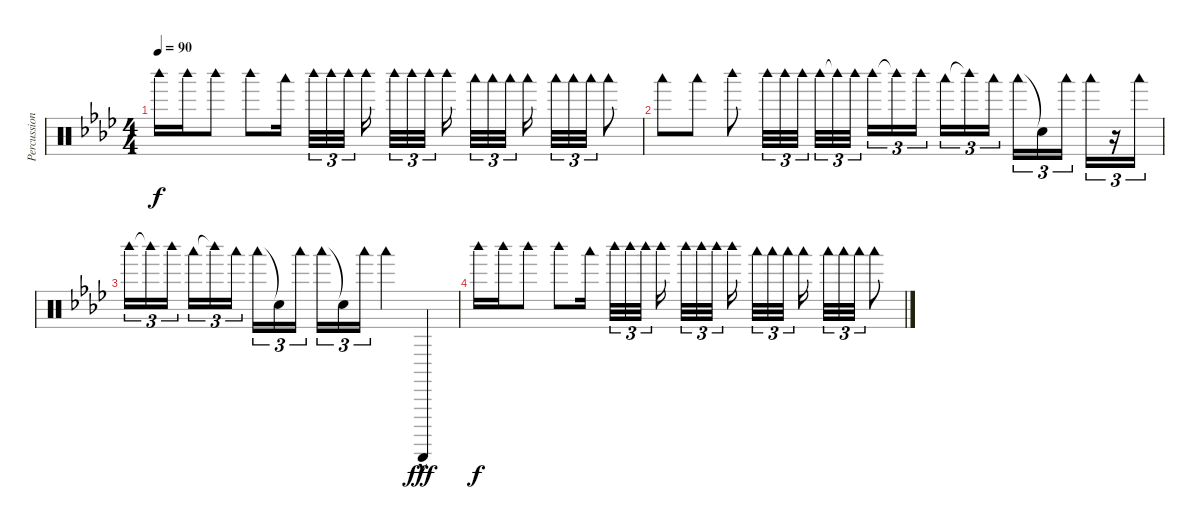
\track ("Percussion" "Percussion") {instrument percussion}
\staff {score}
\articulation defaults
\ts (4 4)
\tempo 90
\clef neutral
\ks ab "Woodblock high (hit)".16{dy f} "Woodblock high (hit)".16 "Woodblock high (hit)".8 "Woodblock high (hit)".8 "Woodblock low (hit)".16{beam splitsecondary} "Woodblock high (hit)".32{tu (3 2)} "Woodblock high (hit)".32{tu (3 2)} "Woodblock high (hit)".32{tu (3 2)} "Woodblock high (hit)".16{beam splitsecondary} "Woodblock high (hit)".32{tu (3 2)} "Woodblock high (hit)".32{tu (3 2)} "Woodblock high (hit)".32{tu (3 2) beam splitsecondary} "Woodblock high (hit)".16{beam splitsecondary} "Woodblock low (hit)".32{tu (3 2)} "Woodblock low (hit)".32{tu (3 2)} "Woodblock low (hit)".32{tu (3 2)} "Woodblock low (hit)".16{beam splitsecondary} "Woodblock low (hit)".32{tu (3 2)} "Woodblock low (hit)".32{tu (3 2)} "Woodblock low (hit)".32{tu (3 2)} "Woodblock low (hit)".8
|
"Woodblock low (hit)".8 "Woodblock low (hit)".8 "Woodblock high (hit)".8 "Woodblock high (hit)".32{tu (3 2)} "Woodblock high (hit)".32{tu (3 2)} "Woodblock high (hit)".32{tu (3 2) beam splitsecondary} "Woodblock high (hit)".32{tu (3 2)} "Woodblock high (hit)"{t}.32{tu (3 2)} "Woodblock high (hit)".32{tu (3 2)} "Woodblock high (hit)".16{tu (3 2)} "Woodblock high (hit)"{t}.16{tu (3 2)} "Woodblock high (hit)".16{tu (3 2) beam splitsecondary} "Woodblock low (hit)".16{tu (3 2)} "Woodblock high (hit)"{t}.16{tu (3 2)} "Woodblock low (hit)".16{tu (3 2)} "Woodblock low (hit)".16{tu (3 2)} "Snare (hit)"{t}.16{tu (3 2)} "Woodblock low (hit)".16{tu (3 2) beam splitsecondary} "Woodblock low (hit)".16{tu (3 2)} r.16{tu (3 2)} "Woodblock low (hit)".16{tu (3 2)} |
"Woodblock high (hit)".16{tu (3 2)} "Woodblock high (hit)"{t}.16{tu (3 2)} "Woodblock high (hit)".16{tu (3 2) beam splitsecondary} "Woodblock low (hit)".16{tu (3 2)} "Woodblock high (hit)"{t}.16{tu (3 2)} "Woodblock low (hit)".16{tu (3 2)} "Woodblock low (hit)".16{tu (3 2)} "Snare (hit)"{t}.16{tu (3 2)} "Woodblock low (hit)".16{tu (3 2) beam splitsecondary} "Woodblock low (hit)".16{tu (3 2)} "Snare (hit)"{t}.16{tu (3 2)} "Woodblock low (hit)".16{tu (3 2)} "Woodblock low (hit)".4 "Guiro (scrap-return)"{hac}.4{dy fff} |
"Woodblock high (hit)".16{dy f} "Woodblock high (hit)".16 "Woodblock high (hit)".8 "Woodblock high (hit)".8 "Woodblock low (hit)".16{beam splitsecondary} "Woodblock high (hit)".32{tu (3 2)} "Woodblock high (hit)".32{tu (3 2)} "Woodblock high (hit)".32{tu (3 2)} "Woodblock high (hit)".16{beam splitsecondary} "Woodblock high (hit)".32{tu (3 2)} "Woodblock high (hit)".32{tu (3 2)} "Woodblock high (hit)".32{tu (3 2) beam splitsecondary} "Woodblock high (hit)".16{beam splitsecondary} "Woodblock low (hit)".32{tu (3 2)} "Woodblock low (hit)".32{tu (3 2)} "Woodblock low (hit)".32{tu (3 2)} "Woodblock low (hit)".16{beam splitsecondary} "Woodblock low (hit)".32{tu (3 2)} "Woodblock low (hit)".32{tu (3 2)} "Woodblock low (hit)".32{tu (3 2)} "Woodblock low (hit)".8
